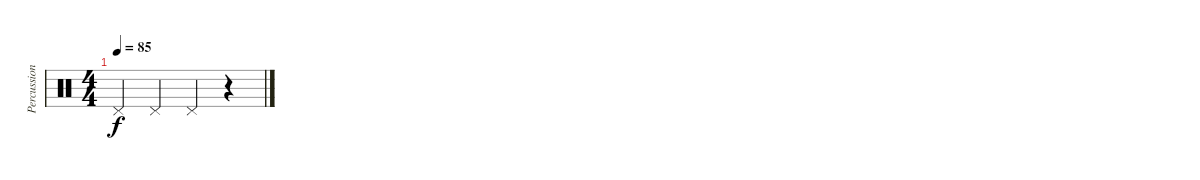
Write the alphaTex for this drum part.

\track ("Percussion" "Percussion") {instrument percussion}
\staff {score}
\articulation defaults
\ts (4 4)
\tempo 85
\clef neutral
\ks c "Pedal Hi-Hat (hit)".4{dy f} "Pedal Hi-Hat (hit)".4 "Pedal Hi-Hat (hit)".4
r.4
